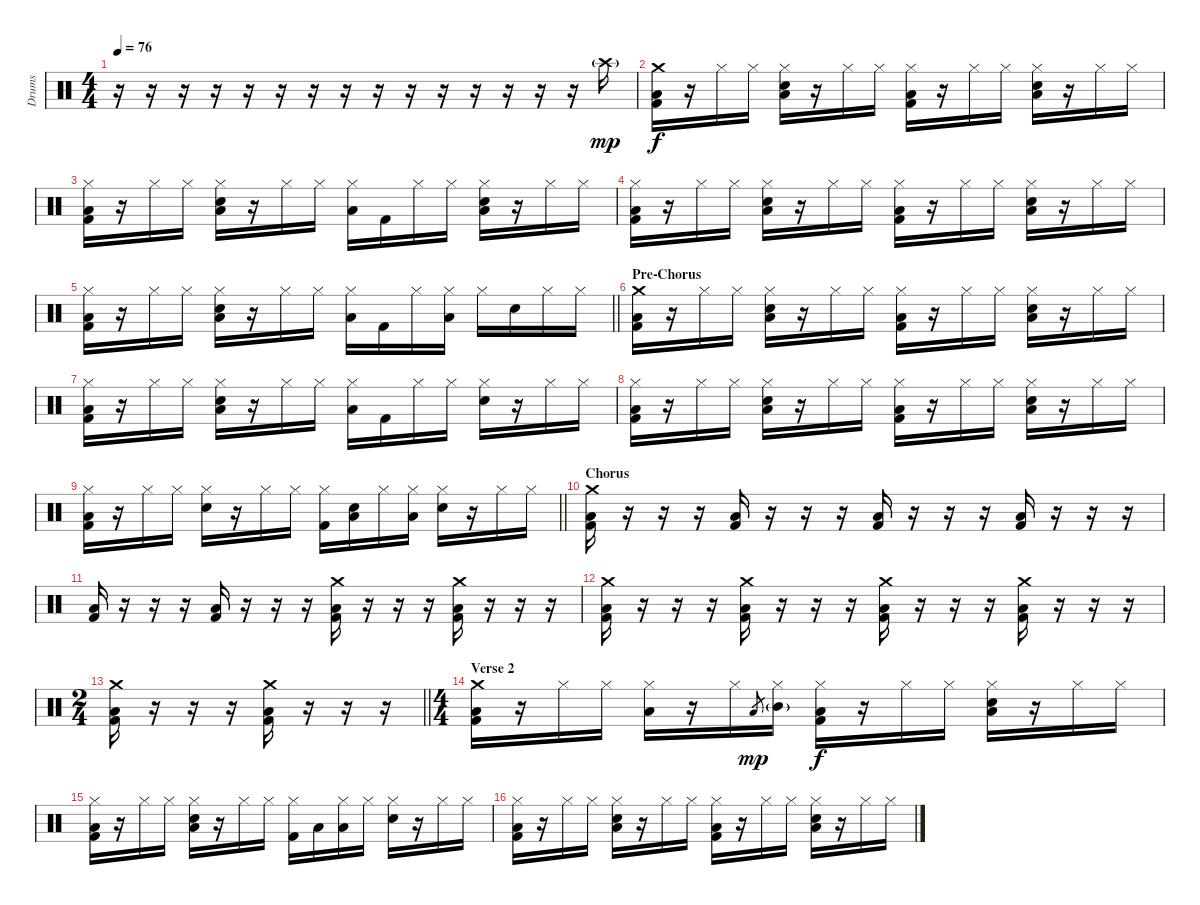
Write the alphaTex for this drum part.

\track ("Drums" "Drums") {instrument percussion}
\staff {score}
\articulation defaults
\ts (4 4)
\tempo 76
\clef neutral
\ks c
r.16{dy mp} r.16 r.16 r.16 r.16 r.16 r.16 r.16 r.16 r.16 r.16 r.16 r.16 r.16 r.16 "Crash high (hit)"{g}.16 |
("Crash medium (hit)" "Kick (hit) 2" "Low Floor Tom (hit)").16{dy f} r.16 "Hi-Hat (closed)".16 "Hi-Hat (closed)".16 ("Hi-Hat (closed)" "Snare (hit) 2" "Low Floor Tom (hit)").16 r.16 "Hi-Hat (closed)".16 "Hi-Hat (closed)".16 ("Hi-Hat (closed)" "Kick (hit) 2" "Low Floor Tom (hit)").16 r.16 "Hi-Hat (closed)".16 "Hi-Hat (closed)".16 ("Hi-Hat (closed)" "Snare (hit) 2" "Low Floor Tom (hit)").16 r.16 "Hi-Hat (closed)".16 "Hi-Hat (closed)".16 |
("Hi-Hat (closed)" "Kick (hit) 2" "Low Floor Tom (hit)").16 r.16 "Hi-Hat (closed)".16 "Hi-Hat (closed)".16 ("Hi-Hat (closed)" "Snare (hit) 2" "Low Floor Tom (hit)").16 r.16 "Hi-Hat (closed)".16 "Hi-Hat (closed)".16 ("Hi-Hat (closed)" "Low Tom (hit)").16 "Kick (hit) 2".16 "Hi-Hat (closed)".16 "Hi-Hat (closed)".16 ("Hi-Hat (closed)" "Snare (hit) 2" "Low Floor Tom (hit)").16 r.16 "Hi-Hat (closed)".16 "Hi-Hat (closed)".16 |
("Hi-Hat (closed)" "Kick (hit) 2" "Low Floor Tom (hit)").16 r.16 "Hi-Hat (closed)".16 "Hi-Hat (closed)".16 ("Hi-Hat (closed)" "Snare (hit) 2" "Low Floor Tom (hit)").16 r.16 "Hi-Hat (closed)".16 "Hi-Hat (closed)".16 ("Hi-Hat (closed)" "Kick (hit) 2" "Low Floor Tom (hit)").16 r.16 "Hi-Hat (closed)".16 "Hi-Hat (closed)".16 ("Hi-Hat (closed)" "Snare (hit) 2" "Low Floor Tom (hit)").16 r.16 "Hi-Hat (closed)".16 "Hi-Hat (closed)".16 |
\barLineRight lightlight
("Hi-Hat (closed)" "Kick (hit) 2" "Low Floor Tom (hit)").16 r.16 "Hi-Hat (closed)".16 "Hi-Hat (closed)".16 ("Hi-Hat (closed)" "Snare (hit) 2" "Low Floor Tom (hit)").16 r.16 "Hi-Hat (closed)".16 "Hi-Hat (closed)".16 ("Hi-Hat (closed)" "Low Tom (hit)").16 "Kick (hit) 2".16 "Hi-Hat (closed)".16 ("Hi-Hat (closed)" "Low Floor Tom (hit)").16 "Hi-Hat (closed)".16 "Snare (hit) 2".16 "Hi-Hat (closed)".16 "Hi-Hat (closed)".16 |
\section ("" "Pre-Chorus")
("Crash medium (hit)" "Kick (hit) 2" "Low Floor Tom (hit)").16 r.16 "Hi-Hat (closed)".16 "Hi-Hat (closed)".16 ("Hi-Hat (closed)" "Snare (hit) 2" "Low Floor Tom (hit)").16 r.16 "Hi-Hat (closed)".16 "Hi-Hat (closed)".16 ("Hi-Hat (closed)" "Kick (hit) 2" "Low Floor Tom (hit)").16 r.16 "Hi-Hat (closed)".16 "Hi-Hat (closed)".16 ("Hi-Hat (closed)" "Snare (hit) 2" "Low Floor Tom (hit)").16 r.16 "Hi-Hat (closed)".16 "Hi-Hat (closed)".16 |
("Hi-Hat (closed)" "Kick (hit) 2" "Low Floor Tom (hit)").16 r.16 "Hi-Hat (closed)".16 "Hi-Hat (closed)".16 ("Hi-Hat (closed)" "Snare (hit) 2" "Low Floor Tom (hit)").16 r.16 "Hi-Hat (closed)".16 "Hi-Hat (closed)".16 ("Hi-Hat (closed)" "Low Tom (hit)").16 "Kick (hit) 2".16 "Hi-Hat (closed)".16 "Hi-Hat (closed)".16 ("Hi-Hat (closed)" "Snare (hit) 2").16 r.16 "Hi-Hat (closed)".16 "Hi-Hat (closed)".16 |
("Hi-Hat (closed)" "Kick (hit) 2" "Low Floor Tom (hit)").16 r.16 "Hi-Hat (closed)".16 "Hi-Hat (closed)".16 ("Hi-Hat (closed)" "Snare (hit) 2" "Low Floor Tom (hit)").16 r.16 "Hi-Hat (closed)".16 "Hi-Hat (closed)".16 ("Hi-Hat (closed)" "Kick (hit) 2" "Low Floor Tom (hit)").16 r.16 "Hi-Hat (closed)".16 "Hi-Hat (closed)".16 ("Hi-Hat (closed)" "Snare (hit) 2" "Low Floor Tom (hit)").16 r.16 "Hi-Hat (closed)".16 "Hi-Hat (closed)".16 |
\barLineRight lightlight
("Hi-Hat (closed)" "Kick (hit) 2" "Low Floor Tom (hit)").16 r.16 "Hi-Hat (closed)".16 "Hi-Hat (closed)".16 ("Hi-Hat (closed)" "Snare (hit) 2").16 r.16 "Hi-Hat (closed)".16 "Hi-Hat (closed)".16 ("Hi-Hat (closed)" "Kick (hit) 2").16 ("Snare (hit) 2" "Low Tom (hit)").16 "Hi-Hat (closed)".16 ("Hi-Hat (closed)" "Low Tom (hit)").16 ("Hi-Hat (closed)" "Snare (hit) 2").16 r.16 "Hi-Hat (closed)".16 "Hi-Hat (closed)".16 |
\section ("" "Chorus")
("Crash medium (hit)" "Kick (hit) 2" "Low Floor Tom (hit)").16 r.16 r.16 r.16 ("Kick (hit) 2" "Low Floor Tom (hit)").16 r.16 r.16 r.16 ("Kick (hit) 2" "Low Floor Tom (hit)").16 r.16 r.16 r.16 ("Kick (hit) 2" "Low Floor Tom (hit)").16 r.16 r.16 r.16 |
("Kick (hit) 2" "Low Floor Tom (hit)").16 r.16 r.16 r.16 ("Kick (hit) 2" "Low Floor Tom (hit)").16 r.16 r.16 r.16 ("Crash medium (hit)" "Kick (hit) 2" "Low Floor Tom (hit)").16 r.16 r.16 r.16 ("Crash medium (hit)" "Kick (hit) 2" "Low Floor Tom (hit)").16 r.16 r.16 r.16 |
("Crash medium (hit)" "Kick (hit) 2" "Low Floor Tom (hit)").16 r.16 r.16 r.16 ("Crash medium (hit)" "Kick (hit) 2" "Low Floor Tom (hit)").16 r.16 r.16 r.16 ("Crash medium (hit)" "Kick (hit) 2" "Low Floor Tom (hit)").16 r.16 r.16 r.16 ("Crash medium (hit)" "Kick (hit) 2" "Low Floor Tom (hit)").16 r.16 r.16 r.16 |
\ts (2 4)
\barLineRight lightlight
("Crash medium (hit)" "Kick (hit) 2" "Low Floor Tom (hit)").16 r.16 r.16 r.16 ("Crash medium (hit)" "Kick (hit) 2" "Low Floor Tom (hit)").16 r.16 r.16 r.16 |
\ts (4 4)
\section ("" "Verse 2")
("Crash medium (hit)" "Kick (hit) 2" "Low Floor Tom (hit)").16 r.16 "Hi-Hat (closed)".16 "Hi-Hat (closed)".16 ("Hi-Hat (closed)" "Low Floor Tom (hit)").16 r.16 "Hi-Hat (closed)".16 "Low Tom (hit)".8{gr dy mp} ("Hi-Hat (closed)" "Mid Tom (hit)"{g}).16 ("Hi-Hat (closed)" "Kick (hit) 2" "Low Floor Tom (hit)").16{dy f} r.16 "Hi-Hat (closed)".16 "Hi-Hat (closed)".16 ("Hi-Hat (closed)" "Snare (hit) 2" "Low Floor Tom (hit)").16 r.16 "Hi-Hat (closed)".16 "Hi-Hat (closed)".16 |
("Hi-Hat (closed)" "Kick (hit) 2" "Low Tom (hit)").16 r.16 "Hi-Hat (closed)".16 "Hi-Hat (closed)".16 ("Hi-Hat (closed)" "Snare (hit) 2" "Low Floor Tom (hit)").16 r.16 "Hi-Hat (closed)".16 "Hi-Hat (closed)".16 ("Hi-Hat (closed)" "Kick (hit) 2").16 "Low Tom (hit)".16 ("Hi-Hat (closed)" "Low Floor Tom (hit)").16 "Hi-Hat (closed)".16 ("Hi-Hat (closed)" "Snare (hit) 2").16 r.16 "Hi-Hat (closed)".16 "Hi-Hat (closed)".16 |
("Hi-Hat (closed)" "Kick (hit) 2" "Low Floor Tom (hit)").16 r.16 "Hi-Hat (closed)".16 "Hi-Hat (closed)".16 ("Hi-Hat (closed)" "Snare (hit) 2" "Low Floor Tom (hit)").16 r.16 "Hi-Hat (closed)".16 "Hi-Hat (closed)".16 ("Hi-Hat (closed)" "Kick (hit) 2" "Low Floor Tom (hit)").16 r.16 "Hi-Hat (closed)".16 "Hi-Hat (closed)".16 ("Hi-Hat (closed)" "Snare (hit) 2" "Low Floor Tom (hit)").16 r.16 "Hi-Hat (closed)".16 "Hi-Hat (closed)".16
